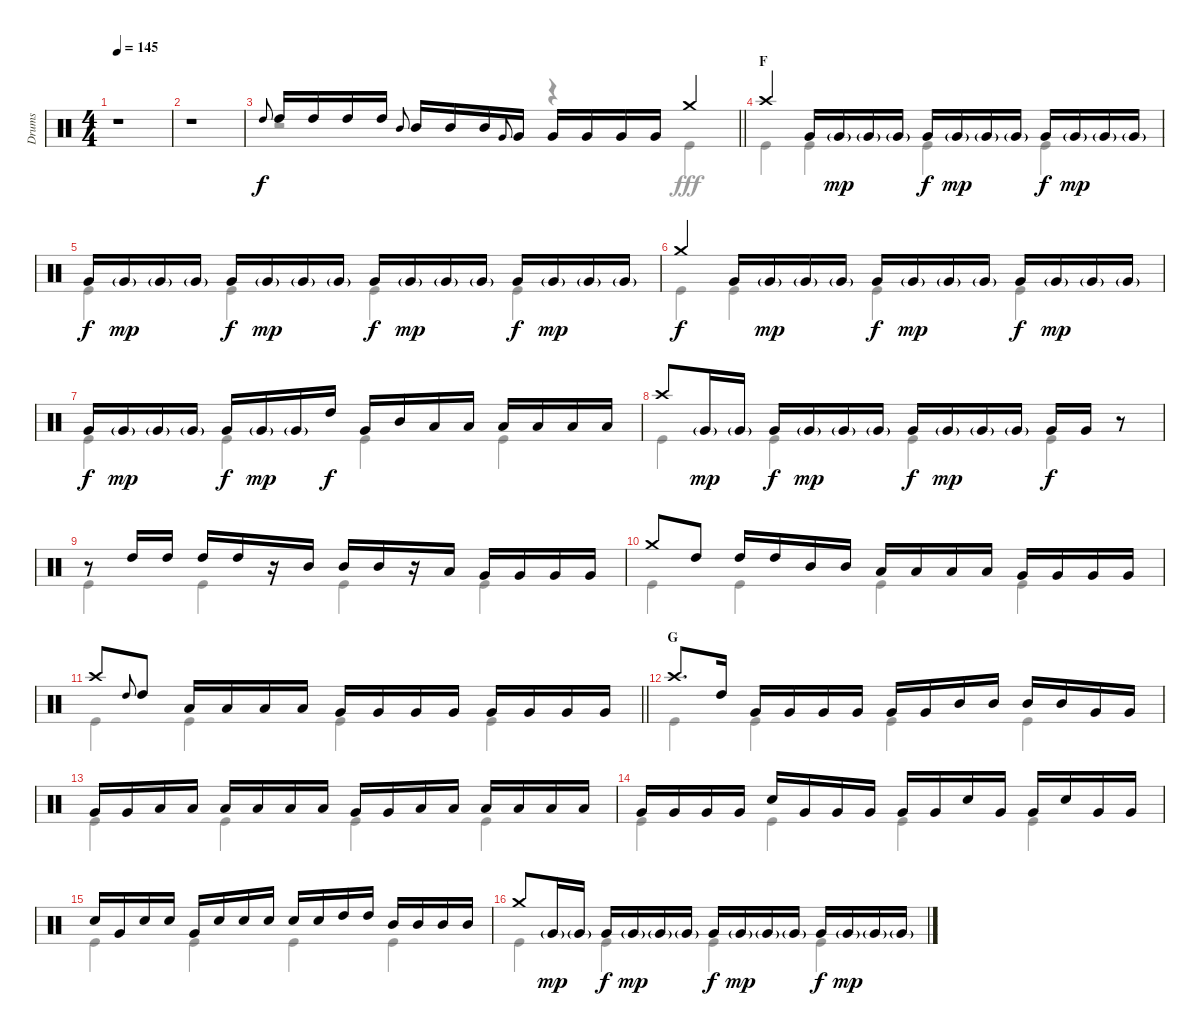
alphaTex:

\track ("Drums" "Drums") {instrument percussion}
\staff {score}
\articulation defaults
\voice
\ts (4 4)
\tempo 145
\clef neutral
\ks c
r.1{dy f} |
r.1 |
\barLineRight lightlight "High Tom (hit)".8{gr onbeat} "High Tom (hit)".16 "High Tom (hit)".16 "High Tom (hit)".16 "High Tom (hit)".16 "Mid Tom (hit)".8{gr onbeat} "Mid Tom (hit)".16 "Mid Tom (hit)".16 "Mid Tom (hit)".16 "Very Low Tom (hit)".8{gr onbeat} "Very Low Tom (hit)".16 "Very Low Tom (hit)".16 "Very Low Tom (hit)".16 "Very Low Tom (hit)".16 "Very Low Tom (hit)".16 "Crash medium (hit)".4
|
\section ("" "F")
"Crash high (hit)".4 "Very Low Tom (hit)".16 "Very Low Tom (hit)"{g}.16{dy mp} "Very Low Tom (hit)"{g}.16 "Very Low Tom (hit)"{g}.16 "Very Low Tom (hit)".16{dy f} "Very Low Tom (hit)"{g}.16{dy mp} "Very Low Tom (hit)"{g}.16 "Very Low Tom (hit)"{g}.16 "Very Low Tom (hit)".16{dy f} "Very Low Tom (hit)"{g}.16{dy mp} "Very Low Tom (hit)"{g}.16 "Very Low Tom (hit)"{g}.16 |
"Very Low Tom (hit)".16{dy f} "Very Low Tom (hit)"{g}.16{dy mp} "Very Low Tom (hit)"{g}.16 "Very Low Tom (hit)"{g}.16 "Very Low Tom (hit)".16{dy f} "Very Low Tom (hit)"{g}.16{dy mp} "Very Low Tom (hit)"{g}.16 "Very Low Tom (hit)"{g}.16 "Very Low Tom (hit)".16{dy f} "Very Low Tom (hit)"{g}.16{dy mp} "Very Low Tom (hit)"{g}.16 "Very Low Tom (hit)"{g}.16 "Very Low Tom (hit)".16{dy f} "Very Low Tom (hit)"{g}.16{dy mp} "Very Low Tom (hit)"{g}.16 "Very Low Tom (hit)"{g}.16 |
"Crash medium (hit)".4{dy f} "Very Low Tom (hit)".16 "Very Low Tom (hit)"{g}.16{dy mp} "Very Low Tom (hit)"{g}.16 "Very Low Tom (hit)"{g}.16 "Very Low Tom (hit)".16{dy f} "Very Low Tom (hit)"{g}.16{dy mp} "Very Low Tom (hit)"{g}.16 "Very Low Tom (hit)"{g}.16 "Very Low Tom (hit)".16{dy f} "Very Low Tom (hit)"{g}.16{dy mp} "Very Low Tom (hit)"{g}.16 "Very Low Tom (hit)"{g}.16 |
"Very Low Tom (hit)".16{dy f} "Very Low Tom (hit)"{g}.16{dy mp} "Very Low Tom (hit)"{g}.16 "Very Low Tom (hit)"{g}.16 "Very Low Tom (hit)".16{dy f} "Very Low Tom (hit)"{g}.16{dy mp} "Very Low Tom (hit)"{g}.16 "High Tom (hit)".16{dy f} "Very Low Tom (hit)".16 "Mid Tom (hit)".16 "Low Tom (hit)".16 "Low Tom (hit)".16 "Low Tom (hit)".16 "Low Tom (hit)".16 "Low Tom (hit)".16 "Low Tom (hit)".16 |
"Crash high (hit)".8 "Very Low Tom (hit)"{g}.16{dy mp} "Very Low Tom (hit)"{g}.16 "Very Low Tom (hit)".16{dy f} "Very Low Tom (hit)"{g}.16{dy mp} "Very Low Tom (hit)"{g}.16 "Very Low Tom (hit)"{g}.16 "Very Low Tom (hit)".16{dy f} "Very Low Tom (hit)"{g}.16{dy mp} "Very Low Tom (hit)"{g}.16 "Very Low Tom (hit)"{g}.16 "Very Low Tom (hit)".16{dy f} "Very Low Tom (hit)".16 r.8 |
r.8 "High Tom (hit)".16 "High Tom (hit)".16 "High Tom (hit)".16 "High Tom (hit)".16 r.16 "Mid Tom (hit)".16 "Mid Tom (hit)".16 "Mid Tom (hit)".16 r.16 "Low Tom (hit)".16 "Very Low Tom (hit)".16 "Very Low Tom (hit)".16 "Very Low Tom (hit)".16 "Very Low Tom (hit)".16 |
"Crash medium (hit)".8 "High Tom (hit)".8 "High Tom (hit)".16 "High Tom (hit)".16 "Mid Tom (hit)".16 "Mid Tom (hit)".16 "Low Tom (hit)".16 "Low Tom (hit)".16 "Low Tom (hit)".16 "Low Tom (hit)".16 "Very Low Tom (hit)".16 "Very Low Tom (hit)".16 "Very Low Tom (hit)".16 "Very Low Tom (hit)".16 |
\barLineRight lightlight "Crash high (hit)".8 "High Tom (hit)".8{gr onbeat} "High Tom (hit)".8 "Low Tom (hit)".16 "Low Tom (hit)".16 "Low Tom (hit)".16 "Low Tom (hit)".16 "Very Low Tom (hit)".16 "Very Low Tom (hit)".16 "Very Low Tom (hit)".16 "Very Low Tom (hit)".16 "Very Low Tom (hit)".16 "Very Low Tom (hit)".16 "Very Low Tom (hit)".16 "Very Low Tom (hit)".16
|
\section ("" "G")
"Crash high (hit)".8{d} "High Tom (hit)".16 "Very Low Tom (hit)".16 "Very Low Tom (hit)".16 "Very Low Tom (hit)".16 "Very Low Tom (hit)".16 "Very Low Tom (hit)".16 "Very Low Tom (hit)".16 "Mid Tom (hit)".16 "Mid Tom (hit)".16 "Mid Tom (hit)".16 "Mid Tom (hit)".16 "Very Low Tom (hit)".16 "Very Low Tom (hit)".16 |
"Very Low Tom (hit)".16 "Very Low Tom (hit)".16 "Low Tom (hit)".16 "Low Tom (hit)".16 "Low Tom (hit)".16 "Low Tom (hit)".16 "Low Tom (hit)".16 "Low Tom (hit)".16 "Very Low Tom (hit)".16 "Very Low Tom (hit)".16 "Low Tom (hit)".16 "Low Tom (hit)".16 "Low Tom (hit)".16 "Low Tom (hit)".16 "Low Tom (hit)".16 "Low Tom (hit)".16 |
"Very Low Tom (hit)".16 "Very Low Tom (hit)".16 "Very Low Tom (hit)".16 "Very Low Tom (hit)".16 "Snare (hit) 2".16 "Very Low Tom (hit)".16 "Very Low Tom (hit)".16 "Very Low Tom (hit)".16 "Very Low Tom (hit)".16 "Very Low Tom (hit)".16 "Snare (hit) 2".16 "Very Low Tom (hit)".16 "Very Low Tom (hit)".16 "Snare (hit) 2".16 "Very Low Tom (hit)".16 "Very Low Tom (hit)".16 |
"Snare (hit) 2".16 "Very Low Tom (hit)".16 "Snare (hit) 2".16 "Snare (hit) 2".16 "Very Low Tom (hit)".16 "Snare (hit) 2".16 "Snare (hit) 2".16 "Snare (hit) 2".16 "Snare (hit) 2".16 "Snare (hit) 2".16 "High Tom (hit)".16 "High Tom (hit)".16 "Mid Tom (hit)".16 "Mid Tom (hit)".16 "Mid Tom (hit)".16 "Mid Tom (hit)".16 |
"Crash medium (hit)".8 "Very Low Tom (hit)"{g}.16{dy mp} "Very Low Tom (hit)"{g}.16 "Very Low Tom (hit)".16{dy f} "Very Low Tom (hit)"{g}.16{dy mp} "Very Low Tom (hit)"{g}.16 "Very Low Tom (hit)"{g}.16 "Very Low Tom (hit)".16{dy f} "Very Low Tom (hit)"{g}.16{dy mp} "Very Low Tom (hit)"{g}.16 "Very Low Tom (hit)"{g}.16 "Very Low Tom (hit)".16{dy f} "Very Low Tom (hit)"{g}.16{dy mp} "Very Low Tom (hit)"{g}.16 "Very Low Tom (hit)"{g}.16
\voice
\clef neutral
\ottava regular
\simile none
\ks c
r.1{dy fff} |
r.1 |
\barLineRight lightlight
r.2 r.4 "Kick (hit)".4 |
"Kick (hit)".4 "Kick (hit)".4 "Kick (hit)".4 "Kick (hit)".4 |
"Kick (hit)".4 "Kick (hit)".4 "Kick (hit)".4 "Kick (hit)".4 |
"Kick (hit)".4 "Kick (hit)".4 "Kick (hit)".4 "Kick (hit)".4 |
"Kick (hit)".4 "Kick (hit)".4 "Kick (hit)".4 "Kick (hit)".4 |
"Kick (hit)".4 "Kick (hit)".4 "Kick (hit)".4 "Kick (hit)".4 |
"Kick (hit)".4 "Kick (hit)".4 "Kick (hit)".4 "Kick (hit)".4 |
"Kick (hit)".4 "Kick (hit)".4 "Kick (hit)".4 "Kick (hit)".4 |
\barLineRight lightlight "Kick (hit)".4 "Kick (hit)".4 "Kick (hit)".4 "Kick (hit)".4
|
"Kick (hit)".4 "Kick (hit)".4 "Kick (hit)".4 "Kick (hit)".4 |
"Kick (hit)".4 "Kick (hit)".4 "Kick (hit)".4 "Kick (hit)".4 |
"Kick (hit)".4 "Kick (hit)".4 "Kick (hit)".4 "Kick (hit)".4 |
"Kick (hit)".4 "Kick (hit)".4 "Kick (hit)".4 "Kick (hit)".4 |
"Kick (hit)".4 "Kick (hit)".4 "Kick (hit)".4 "Kick (hit)".4
